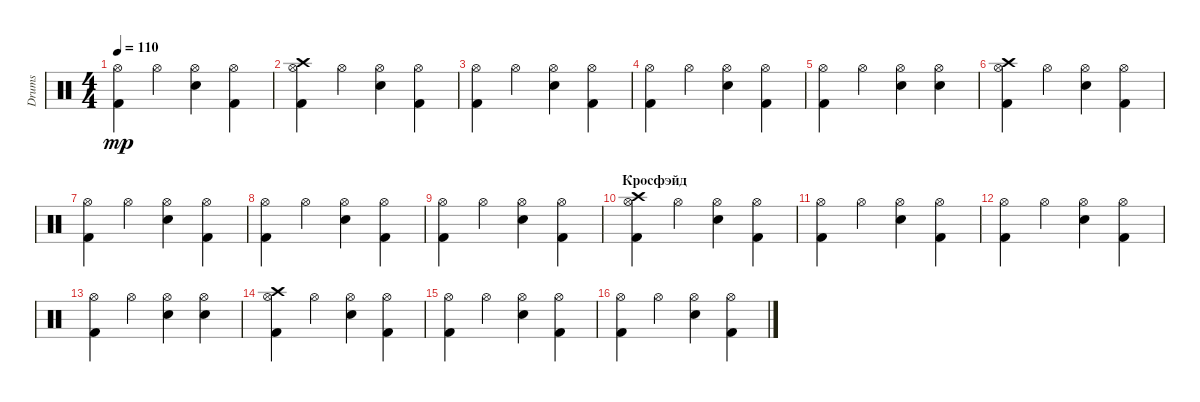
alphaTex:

\track ("Drums" "Drums") {instrument percussion}
\staff {score}
\articulation defaults
\ts (4 4)
\tempo 110
\clef neutral
\ks c
("Kick (hit) 2" "Hi-Hat (open)").4{dy mp} "Hi-Hat (open)".4 ("Snare (hit) 2" "Hi-Hat (open)").4 ("Kick (hit) 2" "Hi-Hat (open)").4 |
("Crash high (hit)" "Kick (hit) 2" "Hi-Hat (open)").4 "Hi-Hat (open)".4 ("Snare (hit) 2" "Hi-Hat (open)").4 ("Kick (hit) 2" "Hi-Hat (open)").4 |
("Kick (hit) 2" "Hi-Hat (open)").4 "Hi-Hat (open)".4 ("Snare (hit) 2" "Hi-Hat (open)").4 ("Kick (hit) 2" "Hi-Hat (open)").4 |
("Kick (hit) 2" "Hi-Hat (open)").4 "Hi-Hat (open)".4 ("Snare (hit) 2" "Hi-Hat (open)").4 ("Kick (hit) 2" "Hi-Hat (open)").4 |
("Kick (hit) 2" "Hi-Hat (open)").4 "Hi-Hat (open)".4 ("Snare (hit) 2" "Hi-Hat (open)").4 ("Snare (hit) 2" "Hi-Hat (open)").4 |
("Crash high (hit)" "Kick (hit) 2" "Hi-Hat (open)").4 "Hi-Hat (open)".4 ("Snare (hit) 2" "Hi-Hat (open)").4 ("Kick (hit) 2" "Hi-Hat (open)").4 |
("Kick (hit) 2" "Hi-Hat (open)").4 "Hi-Hat (open)".4 ("Snare (hit) 2" "Hi-Hat (open)").4 ("Kick (hit) 2" "Hi-Hat (open)").4 |
("Kick (hit) 2" "Hi-Hat (open)").4 "Hi-Hat (open)".4 ("Snare (hit) 2" "Hi-Hat (open)").4 ("Kick (hit) 2" "Hi-Hat (open)").4 |
("Kick (hit) 2" "Hi-Hat (open)").4 "Hi-Hat (open)".4 ("Snare (hit) 2" "Hi-Hat (open)").4 ("Kick (hit) 2" "Hi-Hat (open)").4 |
\section ("" "Кросфэйд")
("Crash high (hit)" "Kick (hit) 2" "Hi-Hat (open)").4 "Hi-Hat (open)".4 ("Snare (hit) 2" "Hi-Hat (open)").4 ("Kick (hit) 2" "Hi-Hat (open)").4 |
("Kick (hit) 2" "Hi-Hat (open)").4 "Hi-Hat (open)".4 ("Snare (hit) 2" "Hi-Hat (open)").4 ("Kick (hit) 2" "Hi-Hat (open)").4 |
("Kick (hit) 2" "Hi-Hat (open)").4 "Hi-Hat (open)".4 ("Snare (hit) 2" "Hi-Hat (open)").4 ("Kick (hit) 2" "Hi-Hat (open)").4 |
("Kick (hit) 2" "Hi-Hat (open)").4 "Hi-Hat (open)".4 ("Snare (hit) 2" "Hi-Hat (open)").4 ("Snare (hit) 2" "Hi-Hat (open)").4 |
("Crash high (hit)" "Kick (hit) 2" "Hi-Hat (open)").4 "Hi-Hat (open)".4 ("Snare (hit) 2" "Hi-Hat (open)").4 ("Kick (hit) 2" "Hi-Hat (open)").4 |
("Kick (hit) 2" "Hi-Hat (open)").4 "Hi-Hat (open)".4 ("Snare (hit) 2" "Hi-Hat (open)").4 ("Kick (hit) 2" "Hi-Hat (open)").4 |
("Kick (hit) 2" "Hi-Hat (open)").4 "Hi-Hat (open)".4 ("Snare (hit) 2" "Hi-Hat (open)").4 ("Kick (hit) 2" "Hi-Hat (open)").4
